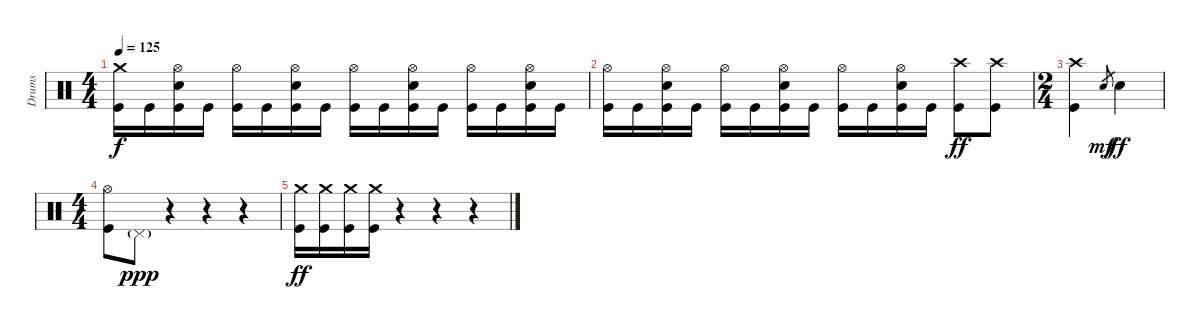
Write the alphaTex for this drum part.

\track ("Drums" "Drums") {instrument percussion}
\staff {score}
\articulation defaults
\ts (4 4)
\tempo 125
\clef neutral
\ks c
("Crash medium (hit)" "Kick (hit)").16{dy f} "Kick (hit)".16 ("Hi-Hat (open)" "Electric Snare (hit)" "Kick (hit)").16 "Kick (hit)".16 ("Hi-Hat (open)" "Kick (hit)").16 "Kick (hit)".16 ("Hi-Hat (open)" "Electric Snare (hit)" "Kick (hit)").16 "Kick (hit)".16 ("Hi-Hat (open)" "Kick (hit)").16 "Kick (hit)".16 ("Hi-Hat (open)" "Electric Snare (hit)" "Kick (hit)").16 "Kick (hit)".16 ("Hi-Hat (open)" "Kick (hit)").16 "Kick (hit)".16 ("Hi-Hat (open)" "Electric Snare (hit)" "Kick (hit)").16 "Kick (hit)".16 |
("Hi-Hat (open)" "Kick (hit)").16 "Kick (hit)".16 ("Hi-Hat (open)" "Electric Snare (hit)" "Kick (hit)").16 "Kick (hit)".16 ("Hi-Hat (open)" "Kick (hit)").16 "Kick (hit)".16 ("Hi-Hat (open)" "Electric Snare (hit)" "Kick (hit)").16 "Kick (hit)".16 ("Hi-Hat (open)" "Kick (hit)").16 "Kick (hit)".16 ("Hi-Hat (open)" "Electric Snare (hit)" "Kick (hit)").16 "Kick (hit)".16 ("Crash high (hit)" "Kick (hit)").8{dy ff} ("Crash high (hit)" "Kick (hit)").8 |
\ts (2 4)
("Crash high (hit)" "Kick (hit)").4 "Electric Snare (hit)".8{gr dy mf} "Electric Snare (hit)".4{dy ff} |
\ts (4 4)
("Hi-Hat (open)" "Kick (hit)").8 "Pedal Hi-Hat (hit)"{g}.8{dy ppp} r.4 r.4 r.4 |
("Crash medium (hit)" "Kick (hit)").16{dy ff} ("Crash medium (hit)" "Kick (hit)").16 ("Crash medium (hit)" "Kick (hit)").16 ("Crash medium (hit)" "Kick (hit)").16 r.4 r.4 r.4
